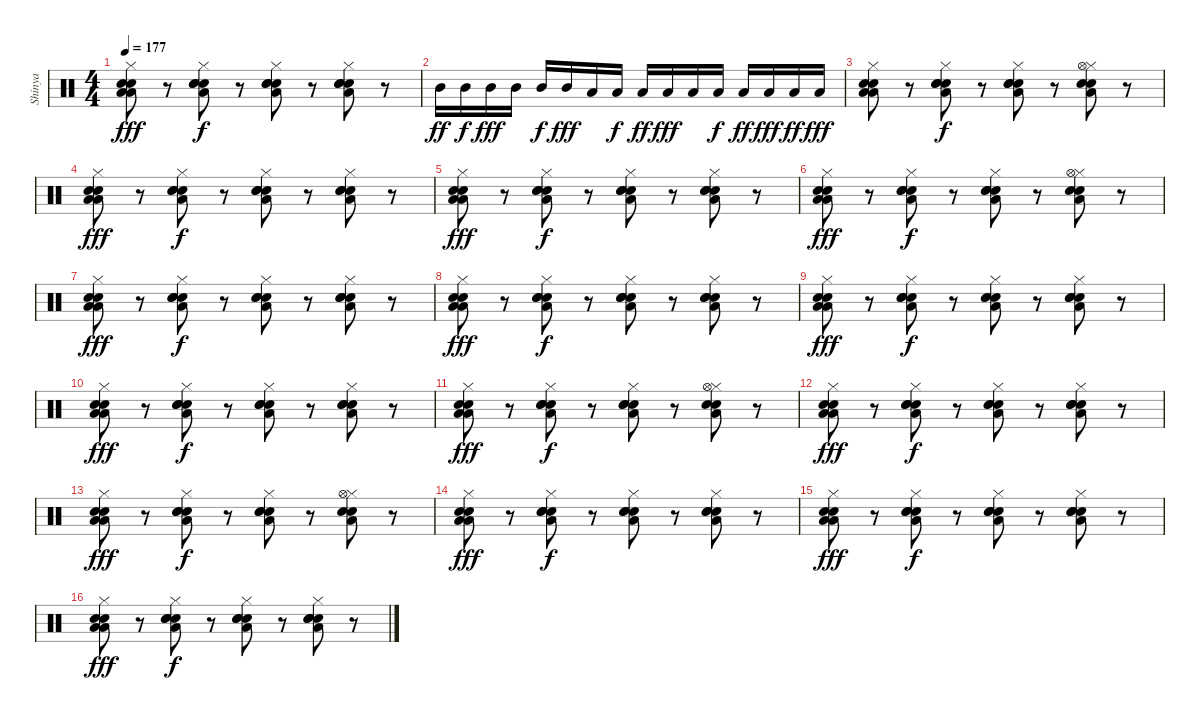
\track ("Shinya " "Shinya ") {instrument percussion}
\staff {score}
\articulation defaults
\ts (4 4)
\tempo 177
\clef neutral
\ks c
("Hi-Hat (closed)" "Electric Snare (hit)" "Low Tom (hit)" "Electric Snare (hit)" "Low Tom (hit)").8{dy fff} r.8 ("Hi-Hat (closed)" "Electric Snare (hit)" "Low Tom (hit)" "Electric Snare (hit)" "Snare (hit) 2").8{dy f} r.8 ("Hi-Hat (closed)" "Electric Snare (hit)" "Electric Snare (hit)" "Snare (hit) 2" "Low Tom (hit)").8 r.8 ("Hi-Hat (closed)" "Electric Snare (hit)" "Electric Snare (hit)" "Electric Snare (hit)" "Low Tom (hit)").8 r.8 |
"Mid Tom (hit)".16{dy ff} "Mid Tom (hit)".16{dy f} "Mid Tom (hit)".16{dy fff} "Mid Tom (hit)".16 "Mid Tom (hit)".16{dy f} "Mid Tom (hit)".16{dy fff} "Low Tom (hit)".16 "Low Tom (hit)".16{dy f} "Low Tom (hit)".16{dy ff} "Low Tom (hit)".16{dy fff} "Low Floor Tom (hit)".16 "Low Floor Tom (hit)".16{dy f} "Low Floor Tom (hit)".16{dy ff} "Low Floor Tom (hit)".16{dy fff} "Low Floor Tom (hit)".16{dy ff} "Low Floor Tom (hit)".16{dy fff} |
("Hi-Hat (closed)" "Electric Snare (hit)" "Low Tom (hit)" "Electric Snare (hit)" "Low Tom (hit)").8 r.8 ("Hi-Hat (closed)" "Electric Snare (hit)" "Low Tom (hit)" "Electric Snare (hit)" "Snare (hit) 2").8{dy f} r.8 ("Hi-Hat (closed)" "Electric Snare (hit)" "Electric Snare (hit)" "Snare (hit) 2" "Low Tom (hit)").8 r.8 ("Hi-Hat (closed)" "Hi-Hat (open)" "Electric Snare (hit)" "Electric Snare (hit)" "Low Tom (hit)").8 r.8 |
("Hi-Hat (closed)" "Electric Snare (hit)" "Low Tom (hit)" "Electric Snare (hit)" "Low Tom (hit)").8{dy fff} r.8 ("Hi-Hat (closed)" "Electric Snare (hit)" "Low Tom (hit)" "Electric Snare (hit)" "Snare (hit) 2").8{dy f} r.8 ("Hi-Hat (closed)" "Electric Snare (hit)" "Electric Snare (hit)" "Snare (hit) 2" "Low Tom (hit)").8 r.8 ("Hi-Hat (closed)" "Electric Snare (hit)" "Electric Snare (hit)" "Electric Snare (hit)" "Low Tom (hit)").8 r.8 |
("Hi-Hat (closed)" "Electric Snare (hit)" "Low Tom (hit)" "Electric Snare (hit)" "Low Tom (hit)").8{dy fff} r.8 ("Hi-Hat (closed)" "Electric Snare (hit)" "Low Tom (hit)" "Electric Snare (hit)" "Snare (hit) 2").8{dy f} r.8 ("Hi-Hat (closed)" "Electric Snare (hit)" "Electric Snare (hit)" "Snare (hit) 2" "Low Tom (hit)").8 r.8 ("Hi-Hat (closed)" "Electric Snare (hit)" "Electric Snare (hit)" "Low Tom (hit)" "Electric Snare (hit)").8 r.8 |
("Hi-Hat (closed)" "Electric Snare (hit)" "Low Tom (hit)" "Electric Snare (hit)" "Low Tom (hit)").8{dy fff} r.8 ("Hi-Hat (closed)" "Electric Snare (hit)" "Low Tom (hit)" "Electric Snare (hit)" "Snare (hit) 2").8{dy f} r.8 ("Hi-Hat (closed)" "Electric Snare (hit)" "Electric Snare (hit)" "Snare (hit) 2" "Low Tom (hit)").8 r.8 ("Hi-Hat (closed)" "Hi-Hat (open)" "Electric Snare (hit)" "Electric Snare (hit)" "Low Tom (hit)").8 r.8 |
("Hi-Hat (closed)" "Electric Snare (hit)" "Low Tom (hit)" "Electric Snare (hit)" "Low Tom (hit)").8{dy fff} r.8 ("Hi-Hat (closed)" "Electric Snare (hit)" "Low Tom (hit)" "Electric Snare (hit)" "Snare (hit) 2").8{dy f} r.8 ("Hi-Hat (closed)" "Electric Snare (hit)" "Electric Snare (hit)" "Snare (hit) 2" "Low Tom (hit)").8 r.8 ("Hi-Hat (closed)" "Electric Snare (hit)" "Electric Snare (hit)" "Electric Snare (hit)" "Low Tom (hit)").8 r.8 |
("Hi-Hat (closed)" "Electric Snare (hit)" "Low Tom (hit)" "Electric Snare (hit)" "Low Tom (hit)").8{dy fff} r.8 ("Hi-Hat (closed)" "Electric Snare (hit)" "Low Tom (hit)" "Electric Snare (hit)" "Snare (hit) 2").8{dy f} r.8 ("Hi-Hat (closed)" "Electric Snare (hit)" "Electric Snare (hit)" "Snare (hit) 2" "Low Tom (hit)").8 r.8 ("Hi-Hat (closed)" "Electric Snare (hit)" "Electric Snare (hit)" "Low Tom (hit)" "Electric Snare (hit)").8 r.8 |
("Hi-Hat (closed)" "Electric Snare (hit)" "Low Tom (hit)" "Electric Snare (hit)" "Low Tom (hit)").8{dy fff} r.8 ("Hi-Hat (closed)" "Electric Snare (hit)" "Low Tom (hit)" "Electric Snare (hit)" "Snare (hit) 2").8{dy f} r.8 ("Hi-Hat (closed)" "Electric Snare (hit)" "Electric Snare (hit)" "Snare (hit) 2" "Low Tom (hit)").8 r.8 ("Hi-Hat (closed)" "Electric Snare (hit)" "Electric Snare (hit)" "Electric Snare (hit)" "Low Tom (hit)").8 r.8 |
("Hi-Hat (closed)" "Electric Snare (hit)" "Low Tom (hit)" "Electric Snare (hit)" "Low Tom (hit)").8{dy fff} r.8 ("Hi-Hat (closed)" "Electric Snare (hit)" "Low Tom (hit)" "Electric Snare (hit)" "Snare (hit) 2").8{dy f} r.8 ("Hi-Hat (closed)" "Electric Snare (hit)" "Electric Snare (hit)" "Snare (hit) 2" "Low Tom (hit)").8 r.8 ("Hi-Hat (closed)" "Electric Snare (hit)" "Electric Snare (hit)" "Low Tom (hit)" "Electric Snare (hit)").8 r.8 |
("Hi-Hat (closed)" "Electric Snare (hit)" "Low Tom (hit)" "Electric Snare (hit)" "Low Tom (hit)").8{dy fff} r.8 ("Hi-Hat (closed)" "Electric Snare (hit)" "Low Tom (hit)" "Electric Snare (hit)" "Snare (hit) 2").8{dy f} r.8 ("Hi-Hat (closed)" "Electric Snare (hit)" "Electric Snare (hit)" "Snare (hit) 2" "Low Tom (hit)").8 r.8 ("Hi-Hat (closed)" "Hi-Hat (open)" "Electric Snare (hit)" "Electric Snare (hit)" "Low Tom (hit)").8 r.8 |
("Hi-Hat (closed)" "Electric Snare (hit)" "Low Tom (hit)" "Electric Snare (hit)" "Low Tom (hit)").8{dy fff} r.8 ("Hi-Hat (closed)" "Electric Snare (hit)" "Low Tom (hit)" "Electric Snare (hit)" "Snare (hit) 2").8{dy f} r.8 ("Hi-Hat (closed)" "Electric Snare (hit)" "Electric Snare (hit)" "Snare (hit) 2" "Low Tom (hit)").8 r.8 ("Hi-Hat (closed)" "Electric Snare (hit)" "Electric Snare (hit)" "Electric Snare (hit)" "Low Tom (hit)").8 r.8 |
("Hi-Hat (closed)" "Electric Snare (hit)" "Low Tom (hit)" "Electric Snare (hit)" "Low Tom (hit)").8{dy fff} r.8 ("Hi-Hat (closed)" "Electric Snare (hit)" "Low Tom (hit)" "Electric Snare (hit)" "Snare (hit) 2").8{dy f} r.8 ("Hi-Hat (closed)" "Electric Snare (hit)" "Electric Snare (hit)" "Snare (hit) 2" "Low Tom (hit)").8 r.8 ("Hi-Hat (closed)" "Hi-Hat (open)" "Electric Snare (hit)" "Electric Snare (hit)" "Low Tom (hit)").8 r.8 |
("Hi-Hat (closed)" "Electric Snare (hit)" "Low Tom (hit)" "Electric Snare (hit)" "Low Tom (hit)").8{dy fff} r.8 ("Hi-Hat (closed)" "Electric Snare (hit)" "Low Tom (hit)" "Electric Snare (hit)" "Snare (hit) 2").8{dy f} r.8 ("Hi-Hat (closed)" "Electric Snare (hit)" "Electric Snare (hit)" "Snare (hit) 2" "Low Tom (hit)").8 r.8 ("Hi-Hat (closed)" "Electric Snare (hit)" "Electric Snare (hit)" "Electric Snare (hit)" "Low Tom (hit)").8 r.8 |
("Hi-Hat (closed)" "Electric Snare (hit)" "Low Tom (hit)" "Electric Snare (hit)" "Low Tom (hit)").8{dy fff} r.8 ("Hi-Hat (closed)" "Electric Snare (hit)" "Low Tom (hit)" "Electric Snare (hit)" "Snare (hit) 2").8{dy f} r.8 ("Hi-Hat (closed)" "Electric Snare (hit)" "Electric Snare (hit)" "Snare (hit) 2" "Low Tom (hit)").8 r.8 ("Hi-Hat (closed)" "Electric Snare (hit)" "Electric Snare (hit)" "Low Tom (hit)" "Electric Snare (hit)").8 r.8 |
("Hi-Hat (closed)" "Electric Snare (hit)" "Low Tom (hit)" "Electric Snare (hit)" "Low Tom (hit)").8{dy fff} r.8 ("Hi-Hat (closed)" "Electric Snare (hit)" "Low Tom (hit)" "Electric Snare (hit)" "Snare (hit) 2").8{dy f} r.8 ("Hi-Hat (closed)" "Electric Snare (hit)" "Electric Snare (hit)" "Snare (hit) 2" "Low Tom (hit)").8 r.8 ("Hi-Hat (closed)" "Electric Snare (hit)" "Electric Snare (hit)" "Electric Snare (hit)" "Low Tom (hit)").8 r.8
